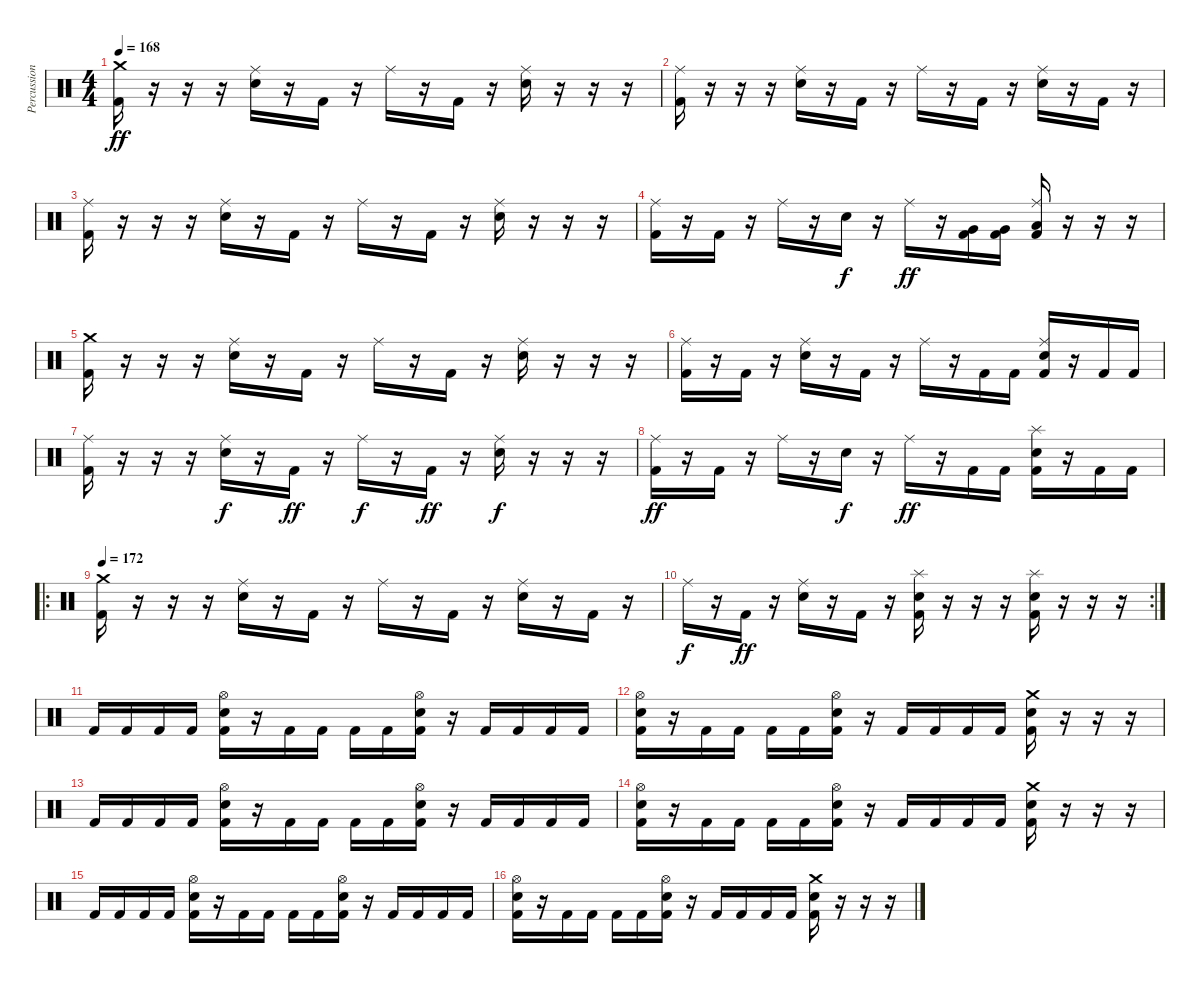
\track ("Percussion" "Percussion") {instrument percussion}
\staff {score}
\articulation defaults
\ts (4 4)
\tempo 168
\clef neutral
\ks c
("Crash medium (hit)" "Kick (hit) 2").16{dy ff} r.16 r.16 r.16 ("Ride (middle)" "Electric Snare (hit)").16 r.16 "Kick (hit) 2".16 r.16 "Ride (middle)".16 r.16 "Kick (hit) 2".16 r.16 ("Ride (middle)" "Electric Snare (hit)").16 r.16 r.16 r.16 |
("Ride (middle)" "Kick (hit) 2").16 r.16 r.16 r.16 ("Ride (middle)" "Electric Snare (hit)").16 r.16 "Kick (hit) 2".16 r.16 "Ride (middle)".16 r.16 "Kick (hit) 2".16 r.16 ("Ride (middle)" "Electric Snare (hit)").16 r.16 "Kick (hit) 2".16 r.16 |
("Ride (middle)" "Kick (hit) 2").16 r.16 r.16 r.16 ("Ride (middle)" "Electric Snare (hit)").16 r.16 "Kick (hit) 2".16 r.16 "Ride (middle)".16 r.16 "Kick (hit) 2".16 r.16 ("Ride (middle)" "Electric Snare (hit)").16 r.16 r.16 r.16 |
("Ride (middle)" "Kick (hit) 2").16 r.16 "Kick (hit) 2".16 r.16 "Ride (middle)".16 r.16 "Electric Snare (hit)".16{dy f} r.16 "Ride (middle)".16{dy ff} r.16 ("Very Low Tom (hit)" "Kick (hit) 2").16 ("Very Low Tom (hit)" "Kick (hit) 2").16 ("Ride (middle)" "Low Floor Tom (hit)" "Kick (hit) 2").16 r.16 r.16 r.16 |
("Crash medium (hit)" "Kick (hit) 2").16 r.16 r.16 r.16 ("Ride (middle)" "Electric Snare (hit)").16 r.16 "Kick (hit) 2".16 r.16 "Ride (middle)".16 r.16 "Kick (hit) 2".16 r.16 ("Ride (middle)" "Electric Snare (hit)").16 r.16 r.16 r.16 |
("Ride (middle)" "Kick (hit) 2").16 r.16 "Kick (hit) 2".16 r.16 ("Ride (middle)" "Electric Snare (hit)").16 r.16 "Kick (hit) 2".16 r.16 "Ride (middle)".16 r.16 "Kick (hit) 2".16 "Kick (hit) 2".16 ("Ride (middle)" "Electric Snare (hit)" "Kick (hit) 2").16 r.16 "Kick (hit) 2".16 "Kick (hit) 2".16 |
("Ride (middle)" "Kick (hit) 2").16 r.16 r.16 r.16 ("Ride (middle)" "Electric Snare (hit)").16{dy f} r.16 "Kick (hit) 2".16{dy ff} r.16 "Ride (middle)".16{dy f} r.16 "Kick (hit) 2".16{dy ff} r.16 ("Ride (middle)" "Electric Snare (hit)").16{dy f} r.16 r.16 r.16 |
("Ride (middle)" "Kick (hit) 2").16{dy ff} r.16 "Kick (hit) 2".16 r.16 "Ride (middle)".16 r.16 "Electric Snare (hit)".16{dy f} r.16 "Ride (middle)".16{dy ff} r.16 "Kick (hit) 2".16 "Kick (hit) 2".16 ("Splash (hit)" "Electric Snare (hit)" "Kick (hit) 2").16 r.16 "Kick (hit) 2".16 "Kick (hit) 2".16 |
\ro
\tempo 172
("Crash medium (hit)" "Kick (hit) 2").16 r.16 r.16 r.16 ("Ride (middle)" "Electric Snare (hit)").16 r.16 "Kick (hit) 2".16 r.16 "Ride (middle)".16 r.16 "Kick (hit) 2".16 r.16 ("Ride (middle)" "Electric Snare (hit)").16 r.16 "Kick (hit) 2".16 r.16 |
\rc 2 "Ride (middle)".16{dy f}
r.16 "Kick (hit) 2".16{dy ff} r.16 ("Ride (middle)" "Electric Snare (hit)").16 r.16 "Kick (hit) 2".16 r.16 ("Splash (hit)" "Electric Snare (hit)" "Kick (hit) 2").16 r.16 r.16 r.16 ("Splash (hit)" "Electric Snare (hit)" "Kick (hit) 2").16 r.16 r.16 r.16 |
"Kick (hit) 2".16 "Kick (hit) 2".16 "Kick (hit) 2".16 "Kick (hit) 2".16 ("Hi-Hat (open)" "Electric Snare (hit)" "Kick (hit) 2").16 r.16 "Kick (hit) 2".16 "Kick (hit) 2".16 "Kick (hit) 2".16 "Kick (hit) 2".16 ("Hi-Hat (open)" "Electric Snare (hit)" "Kick (hit) 2").16 r.16 "Kick (hit) 2".16 "Kick (hit) 2".16 "Kick (hit) 2".16 "Kick (hit) 2".16 |
("Hi-Hat (open)" "Electric Snare (hit)" "Kick (hit) 2").16 r.16 "Kick (hit) 2".16 "Kick (hit) 2".16 "Kick (hit) 2".16 "Kick (hit) 2".16 ("Hi-Hat (open)" "Electric Snare (hit)" "Kick (hit) 2").16 r.16 "Kick (hit) 2".16 "Kick (hit) 2".16 "Kick (hit) 2".16 "Kick (hit) 2".16 ("Crash medium (hit)" "Electric Snare (hit)" "Kick (hit) 2").16 r.16 r.16 r.16 |
"Kick (hit) 2".16 "Kick (hit) 2".16 "Kick (hit) 2".16 "Kick (hit) 2".16 ("Hi-Hat (open)" "Electric Snare (hit)" "Kick (hit) 2").16 r.16 "Kick (hit) 2".16 "Kick (hit) 2".16 "Kick (hit) 2".16 "Kick (hit) 2".16 ("Hi-Hat (open)" "Electric Snare (hit)" "Kick (hit) 2").16 r.16 "Kick (hit) 2".16 "Kick (hit) 2".16 "Kick (hit) 2".16 "Kick (hit) 2".16 |
("Hi-Hat (open)" "Electric Snare (hit)" "Kick (hit) 2").16 r.16 "Kick (hit) 2".16 "Kick (hit) 2".16 "Kick (hit) 2".16 "Kick (hit) 2".16 ("Hi-Hat (open)" "Electric Snare (hit)" "Kick (hit) 2").16 r.16 "Kick (hit) 2".16 "Kick (hit) 2".16 "Kick (hit) 2".16 "Kick (hit) 2".16 ("Crash medium (hit)" "Electric Snare (hit)" "Kick (hit) 2").16 r.16 r.16 r.16 |
"Kick (hit) 2".16 "Kick (hit) 2".16 "Kick (hit) 2".16 "Kick (hit) 2".16 ("Hi-Hat (open)" "Electric Snare (hit)" "Kick (hit) 2").16 r.16 "Kick (hit) 2".16 "Kick (hit) 2".16 "Kick (hit) 2".16 "Kick (hit) 2".16 ("Hi-Hat (open)" "Electric Snare (hit)" "Kick (hit) 2").16 r.16 "Kick (hit) 2".16 "Kick (hit) 2".16 "Kick (hit) 2".16 "Kick (hit) 2".16 |
("Hi-Hat (open)" "Electric Snare (hit)" "Kick (hit) 2").16 r.16 "Kick (hit) 2".16 "Kick (hit) 2".16 "Kick (hit) 2".16 "Kick (hit) 2".16 ("Hi-Hat (open)" "Electric Snare (hit)" "Kick (hit) 2").16 r.16 "Kick (hit) 2".16 "Kick (hit) 2".16 "Kick (hit) 2".16 "Kick (hit) 2".16 ("Crash medium (hit)" "Electric Snare (hit)" "Kick (hit) 2").16 r.16 r.16 r.16
